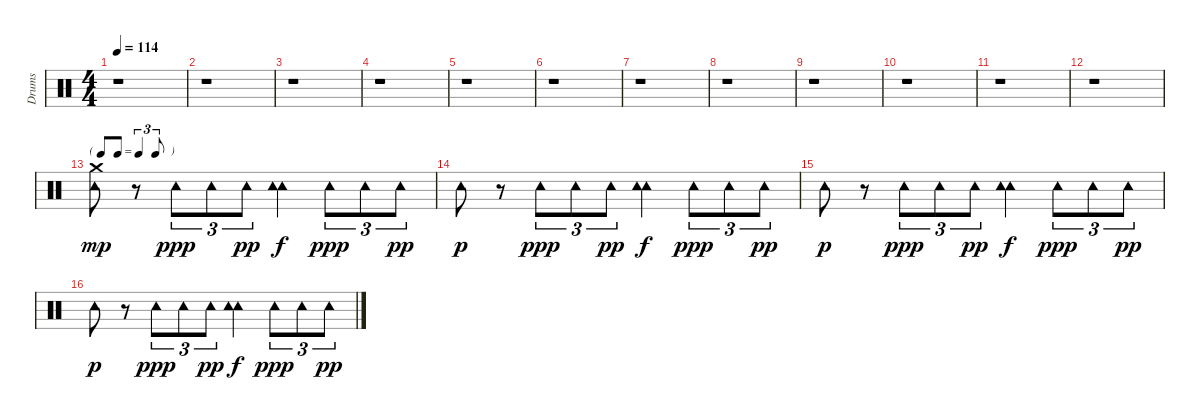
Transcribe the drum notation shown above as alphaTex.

\track ("Drums" "Drums") {instrument percussion}
\staff {score}
\articulation defaults
\ts (4 4)
\tempo 114
\clef neutral
\ks c
r.1{dy f} |
r.1 |
r.1 |
r.1 |
r.1 |
r.1 |
r.1 |
r.1 |
r.1 |
r.1 |
r.1 |
r.1 |
\tf triplet8th
("Crash medium (hit)" "Tambourine (hit)").8{dy mp volume 4} r.8 "Tambourine (hit)".8{tu (3 2) dy ppp} "Tambourine (hit)".8{tu (3 2)} "Tambourine (hit)".8{tu (3 2) dy pp} ("Tambourine (hit)" "Tambourine (hit)").4{dy f} "Tambourine (hit)".8{tu (3 2) dy ppp} "Tambourine (hit)".8{tu (3 2)} "Tambourine (hit)".8{tu (3 2) dy pp} |
"Tambourine (hit)".8{dy p} r.8 "Tambourine (hit)".8{tu (3 2) dy ppp} "Tambourine (hit)".8{tu (3 2)} "Tambourine (hit)".8{tu (3 2) dy pp} ("Tambourine (hit)" "Tambourine (hit)").4{dy f} "Tambourine (hit)".8{tu (3 2) dy ppp} "Tambourine (hit)".8{tu (3 2)} "Tambourine (hit)".8{tu (3 2) dy pp} |
"Tambourine (hit)".8{dy p} r.8 "Tambourine (hit)".8{tu (3 2) dy ppp} "Tambourine (hit)".8{tu (3 2)} "Tambourine (hit)".8{tu (3 2) dy pp} ("Tambourine (hit)" "Tambourine (hit)").4{dy f} "Tambourine (hit)".8{tu (3 2) dy ppp} "Tambourine (hit)".8{tu (3 2)} "Tambourine (hit)".8{tu (3 2) dy pp} |
"Tambourine (hit)".8{dy p} r.8 "Tambourine (hit)".8{tu (3 2) dy ppp} "Tambourine (hit)".8{tu (3 2)} "Tambourine (hit)".8{tu (3 2) dy pp} ("Tambourine (hit)" "Tambourine (hit)").4{dy f} "Tambourine (hit)".8{tu (3 2) dy ppp} "Tambourine (hit)".8{tu (3 2)} "Tambourine (hit)".8{tu (3 2) dy pp}
